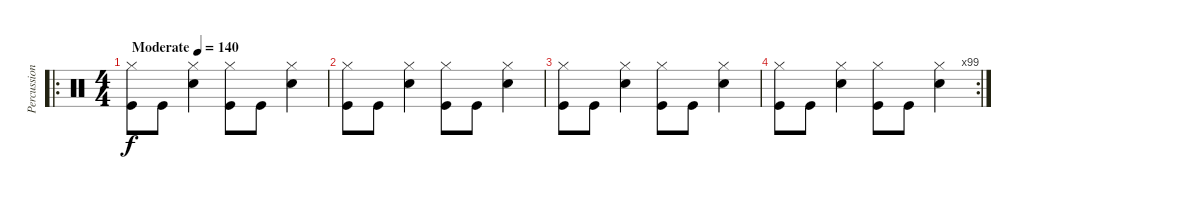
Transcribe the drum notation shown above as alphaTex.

\track ("Percussion" "Percussion") {instrument percussion}
\staff {score}
\articulation defaults
\ro
\ts (4 4)
\tempo (140 "Moderate")
\clef neutral
\ks c
("Hi-Hat (closed)" "Kick (hit)").8{dy f} "Kick (hit)".8 ("Hi-Hat (closed)" "Snare (hit) 2").4 ("Hi-Hat (closed)" "Kick (hit)").8 "Kick (hit)".8 ("Hi-Hat (closed)" "Snare (hit) 2").4 |
("Hi-Hat (closed)" "Kick (hit)").8 "Kick (hit)".8 ("Hi-Hat (closed)" "Snare (hit) 2").4 ("Hi-Hat (closed)" "Kick (hit)").8 "Kick (hit)".8 ("Hi-Hat (closed)" "Snare (hit) 2").4 |
("Hi-Hat (closed)" "Kick (hit)").8 "Kick (hit)".8 ("Hi-Hat (closed)" "Snare (hit) 2").4 ("Hi-Hat (closed)" "Kick (hit)").8 "Kick (hit)".8 ("Hi-Hat (closed)" "Snare (hit) 2").4 |
\rc 99
("Hi-Hat (closed)" "Kick (hit)").8 "Kick (hit)".8 ("Hi-Hat (closed)" "Snare (hit) 2").4 ("Hi-Hat (closed)" "Kick (hit)").8 "Kick (hit)".8 ("Hi-Hat (closed)" "Snare (hit) 2").4
